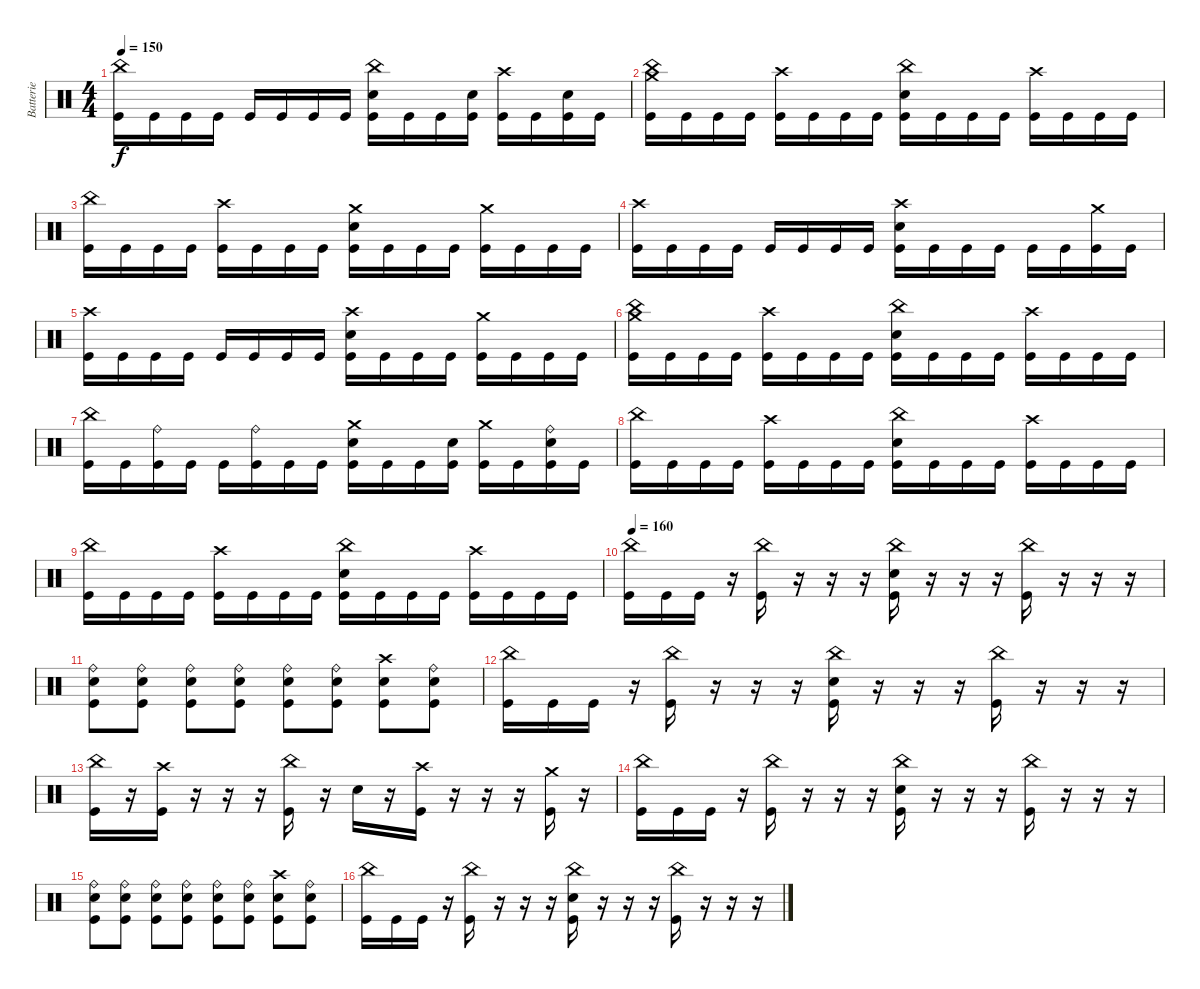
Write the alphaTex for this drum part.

\track ("Batterie" "Batterie") {instrument percussion}
\staff {score}
\articulation defaults
\ts (4 4)
\tempo 150
\clef neutral
\ks c
("China (hit)" "Kick (hit)").16{dy f} "Kick (hit)".16 "Kick (hit)".16 "Kick (hit)".16 "Kick (hit)".16 "Kick (hit)".16 "Kick (hit)".16 "Kick (hit)".16 ("China (hit)" "Electric Snare (hit)" "Kick (hit)").16 "Kick (hit)".16 "Kick (hit)".16 ("Electric Snare (hit)" "Kick (hit)").16 ("Crash high (hit)" "Kick (hit)").16 "Kick (hit)".16 ("Electric Snare (hit)" "Kick (hit)").16 "Kick (hit)".16 |
("China (hit)" "Crash medium (hit)" "Kick (hit)").16 "Kick (hit)".16 "Kick (hit)".16 "Kick (hit)".16 ("Crash high (hit)" "Kick (hit)").16 "Kick (hit)".16 "Kick (hit)".16 "Kick (hit)".16 ("China (hit)" "Electric Snare (hit)" "Kick (hit)").16 "Kick (hit)".16 "Kick (hit)".16 "Kick (hit)".16 ("Crash high (hit)" "Kick (hit)").16 "Kick (hit)".16 "Kick (hit)".16 "Kick (hit)".16 |
("China (hit)" "Kick (hit)").16 "Kick (hit)".16 "Kick (hit)".16 "Kick (hit)".16 ("Crash high (hit)" "Kick (hit)").16 "Kick (hit)".16 "Kick (hit)".16 "Kick (hit)".16 ("Crash medium (hit)" "Electric Snare (hit)" "Kick (hit)").16 "Kick (hit)".16 "Kick (hit)".16 "Kick (hit)".16 ("Crash medium (hit)" "Kick (hit)").16 "Kick (hit)".16 "Kick (hit)".16 "Kick (hit)".16 |
("Crash high (hit)" "Kick (hit)").16 "Kick (hit)".16 "Kick (hit)".16 "Kick (hit)".16 "Kick (hit)".16 "Kick (hit)".16 "Kick (hit)".16 "Kick (hit)".16 ("Crash high (hit)" "Electric Snare (hit)" "Kick (hit)").16 "Kick (hit)".16 "Kick (hit)".16 "Kick (hit)".16 "Kick (hit)".16 "Kick (hit)".16 ("Crash medium (hit)" "Kick (hit)").16 "Kick (hit)".16 |
("Crash high (hit)" "Kick (hit)").16 "Kick (hit)".16 "Kick (hit)".16 "Kick (hit)".16 "Kick (hit)".16 "Kick (hit)".16 "Kick (hit)".16 "Kick (hit)".16 ("Crash high (hit)" "Electric Snare (hit)" "Kick (hit)").16 "Kick (hit)".16 "Kick (hit)".16 "Kick (hit)".16 ("Crash medium (hit)" "Kick (hit)").16 "Kick (hit)".16 "Kick (hit)".16 "Kick (hit)".16 |
("China (hit)" "Crash medium (hit)" "Kick (hit)").16 "Kick (hit)".16 "Kick (hit)".16 "Kick (hit)".16 ("Crash high (hit)" "Kick (hit)").16 "Kick (hit)".16 "Kick (hit)".16 "Kick (hit)".16 ("China (hit)" "Electric Snare (hit)" "Kick (hit)").16 "Kick (hit)".16 "Kick (hit)".16 "Kick (hit)".16 ("Crash high (hit)" "Kick (hit)").16 "Kick (hit)".16 "Kick (hit)".16 "Kick (hit)".16 |
("China (hit)" "Kick (hit)").16 "Kick (hit)".16 ("Ride (bell)" "Kick (hit)").16 "Kick (hit)".16 "Kick (hit)".16 ("Ride (bell)" "Kick (hit)").16 "Kick (hit)".16 "Kick (hit)".16 ("Crash medium (hit)" "Electric Snare (hit)" "Kick (hit)").16 "Kick (hit)".16 "Kick (hit)".16 ("Electric Snare (hit)" "Kick (hit)").16 ("Crash medium (hit)" "Kick (hit)").16 "Kick (hit)".16 ("Ride (bell)" "Electric Snare (hit)" "Kick (hit)").16 "Kick (hit)".16 |
("China (hit)" "Kick (hit)").16 "Kick (hit)".16 "Kick (hit)".16 "Kick (hit)".16 ("Crash high (hit)" "Kick (hit)").16 "Kick (hit)".16 "Kick (hit)".16 "Kick (hit)".16 ("China (hit)" "Electric Snare (hit)" "Kick (hit)").16 "Kick (hit)".16 "Kick (hit)".16 "Kick (hit)".16 ("Crash high (hit)" "Kick (hit)").16 "Kick (hit)".16 "Kick (hit)".16 "Kick (hit)".16 |
("China (hit)" "Kick (hit)").16 "Kick (hit)".16 "Kick (hit)".16 "Kick (hit)".16 ("Crash high (hit)" "Kick (hit)").16 "Kick (hit)".16 "Kick (hit)".16 "Kick (hit)".16 ("China (hit)" "Electric Snare (hit)" "Kick (hit)").16 "Kick (hit)".16 "Kick (hit)".16 "Kick (hit)".16 ("Crash high (hit)" "Kick (hit)").16 "Kick (hit)".16 "Kick (hit)".16 "Kick (hit)".16 |
\tempo 150
\tempo 160
("China (hit)" "Kick (hit)").16 "Kick (hit)".16 "Kick (hit)".16 r.16 ("China (hit)" "Kick (hit)").16 r.16 r.16 r.16 ("China (hit)" "Electric Snare (hit)" "Kick (hit)").16 r.16 r.16 r.16 ("China (hit)" "Kick (hit)").16 r.16 r.16 r.16 |
("Ride (bell)" "Electric Snare (hit)" "Kick (hit)").8 ("Ride (bell)" "Electric Snare (hit)" "Kick (hit)").8 ("Ride (bell)" "Electric Snare (hit)" "Kick (hit)").8 ("Ride (bell)" "Electric Snare (hit)" "Kick (hit)").8 ("Ride (bell)" "Electric Snare (hit)" "Kick (hit)").8 ("Ride (bell)" "Electric Snare (hit)" "Kick (hit)").8 ("Crash high (hit)" "Electric Snare (hit)" "Kick (hit)").8 ("Ride (bell)" "Electric Snare (hit)" "Kick (hit)").8 |
("China (hit)" "Kick (hit)").16 "Kick (hit)".16 "Kick (hit)".16 r.16 ("China (hit)" "Kick (hit)").16 r.16 r.16 r.16 ("China (hit)" "Electric Snare (hit)" "Kick (hit)").16 r.16 r.16 r.16 ("China (hit)" "Kick (hit)").16 r.16 r.16 r.16 |
("China (hit)" "Kick (hit)").16 r.16 ("Crash high (hit)" "Kick (hit)").16 r.16 r.16 r.16 ("China (hit)" "Kick (hit)").16 r.16 "Electric Snare (hit)".16 r.16 ("Crash high (hit)" "Kick (hit)").16 r.16 r.16 r.16 ("Crash medium (hit)" "Kick (hit)").16 r.16 |
("China (hit)" "Kick (hit)").16 "Kick (hit)".16 "Kick (hit)".16 r.16 ("China (hit)" "Kick (hit)").16 r.16 r.16 r.16 ("China (hit)" "Electric Snare (hit)" "Kick (hit)").16 r.16 r.16 r.16 ("China (hit)" "Kick (hit)").16 r.16 r.16 r.16 |
("Ride (bell)" "Electric Snare (hit)" "Kick (hit)").8 ("Ride (bell)" "Electric Snare (hit)" "Kick (hit)").8 ("Ride (bell)" "Electric Snare (hit)" "Kick (hit)").8 ("Ride (bell)" "Electric Snare (hit)" "Kick (hit)").8 ("Ride (bell)" "Electric Snare (hit)" "Kick (hit)").8 ("Ride (bell)" "Electric Snare (hit)" "Kick (hit)").8 ("Crash high (hit)" "Electric Snare (hit)" "Kick (hit)").8 ("Ride (bell)" "Electric Snare (hit)" "Kick (hit)").8 |
("China (hit)" "Kick (hit)").16 "Kick (hit)".16 "Kick (hit)".16 r.16 ("China (hit)" "Kick (hit)").16 r.16 r.16 r.16 ("China (hit)" "Electric Snare (hit)" "Kick (hit)").16 r.16 r.16 r.16 ("China (hit)" "Kick (hit)").16 r.16 r.16 r.16
